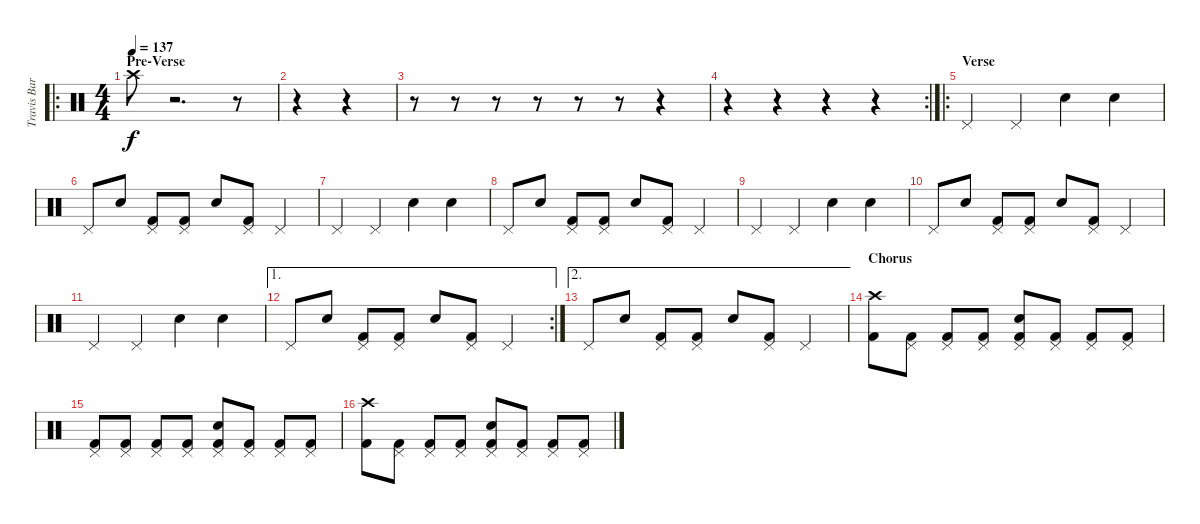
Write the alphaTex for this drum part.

\track ("Travis Barker" "Travis Bar") {instrument percussion}
\staff {score}
\articulation defaults
\ro
\ts (4 4)
\section ("" "Pre-Verse")
\tempo 137
\clef neutral
\ks c "Crash high (hit)".8{dy f}
r.2{d volume 0} r.8 |
r.4 r.4 |
r.8 r.8 r.8 r.8 r.8 r.8 r.4 |
\rc 2
r.4 r.4 r.4 r.4 |
\ro
\section ("" "Verse")
"Pedal Hi-Hat (hit)".4{volume 14} "Pedal Hi-Hat (hit)".4 "Snare (hit) 2".4 "Snare (hit) 2".4 |
"Pedal Hi-Hat (hit)".8 "Snare (hit) 2".8 ("Pedal Hi-Hat (hit)" "Kick (hit) 2").8 ("Pedal Hi-Hat (hit)" "Kick (hit) 2").8 "Snare (hit) 2".8 ("Pedal Hi-Hat (hit)" "Kick (hit) 2").8 "Pedal Hi-Hat (hit)".4 |
"Pedal Hi-Hat (hit)".4 "Pedal Hi-Hat (hit)".4 "Snare (hit) 2".4 "Snare (hit) 2".4 |
"Pedal Hi-Hat (hit)".8 "Snare (hit) 2".8 ("Pedal Hi-Hat (hit)" "Kick (hit) 2").8 ("Pedal Hi-Hat (hit)" "Kick (hit) 2").8 "Snare (hit) 2".8 ("Pedal Hi-Hat (hit)" "Kick (hit) 2").8 "Pedal Hi-Hat (hit)".4 |
"Pedal Hi-Hat (hit)".4 "Pedal Hi-Hat (hit)".4 "Snare (hit) 2".4 "Snare (hit) 2".4 |
"Pedal Hi-Hat (hit)".8 "Snare (hit) 2".8 ("Pedal Hi-Hat (hit)" "Kick (hit) 2").8 ("Pedal Hi-Hat (hit)" "Kick (hit) 2").8 "Snare (hit) 2".8 ("Pedal Hi-Hat (hit)" "Kick (hit) 2").8 "Pedal Hi-Hat (hit)".4 |
"Pedal Hi-Hat (hit)".4 "Pedal Hi-Hat (hit)".4 "Snare (hit) 2".4 "Snare (hit) 2".4 |
\ae 1
\rc 2 "Pedal Hi-Hat (hit)".8 "Snare (hit) 2".8
("Pedal Hi-Hat (hit)" "Kick (hit) 2").8 ("Pedal Hi-Hat (hit)" "Kick (hit) 2").8 "Snare (hit) 2".8 ("Pedal Hi-Hat (hit)" "Kick (hit) 2").8 "Pedal Hi-Hat (hit)".4 |
\ae 2 "Pedal Hi-Hat (hit)".8 "Snare (hit) 2".8
("Pedal Hi-Hat (hit)" "Kick (hit) 2").8 ("Pedal Hi-Hat (hit)" "Kick (hit) 2").8 "Snare (hit) 2".8 ("Pedal Hi-Hat (hit)" "Kick (hit) 2").8 "Pedal Hi-Hat (hit)".4 |
\section ("" "Chorus")
("Crash high (hit)" "Kick (hit) 2").8 ("Pedal Hi-Hat (hit)" "Kick (hit) 2").8 ("Pedal Hi-Hat (hit)" "Kick (hit) 2").8 ("Pedal Hi-Hat (hit)" "Kick (hit) 2").8 ("Pedal Hi-Hat (hit)" "Snare (hit) 2" "Kick (hit) 2").8 ("Pedal Hi-Hat (hit)" "Kick (hit) 2").8 ("Pedal Hi-Hat (hit)" "Kick (hit) 2").8 ("Pedal Hi-Hat (hit)" "Kick (hit) 2").8 |
("Pedal Hi-Hat (hit)" "Kick (hit) 2").8 ("Pedal Hi-Hat (hit)" "Kick (hit) 2").8 ("Pedal Hi-Hat (hit)" "Kick (hit) 2").8 ("Pedal Hi-Hat (hit)" "Kick (hit) 2").8 ("Pedal Hi-Hat (hit)" "Snare (hit) 2" "Kick (hit) 2").8 ("Pedal Hi-Hat (hit)" "Kick (hit) 2").8 ("Pedal Hi-Hat (hit)" "Kick (hit) 2").8 ("Pedal Hi-Hat (hit)" "Kick (hit) 2").8 |
("Crash high (hit)" "Kick (hit) 2").8 ("Pedal Hi-Hat (hit)" "Kick (hit) 2").8 ("Pedal Hi-Hat (hit)" "Kick (hit) 2").8 ("Pedal Hi-Hat (hit)" "Kick (hit) 2").8 ("Pedal Hi-Hat (hit)" "Snare (hit) 2" "Kick (hit) 2").8 ("Pedal Hi-Hat (hit)" "Kick (hit) 2").8 ("Pedal Hi-Hat (hit)" "Kick (hit) 2").8 ("Pedal Hi-Hat (hit)" "Kick (hit) 2").8
